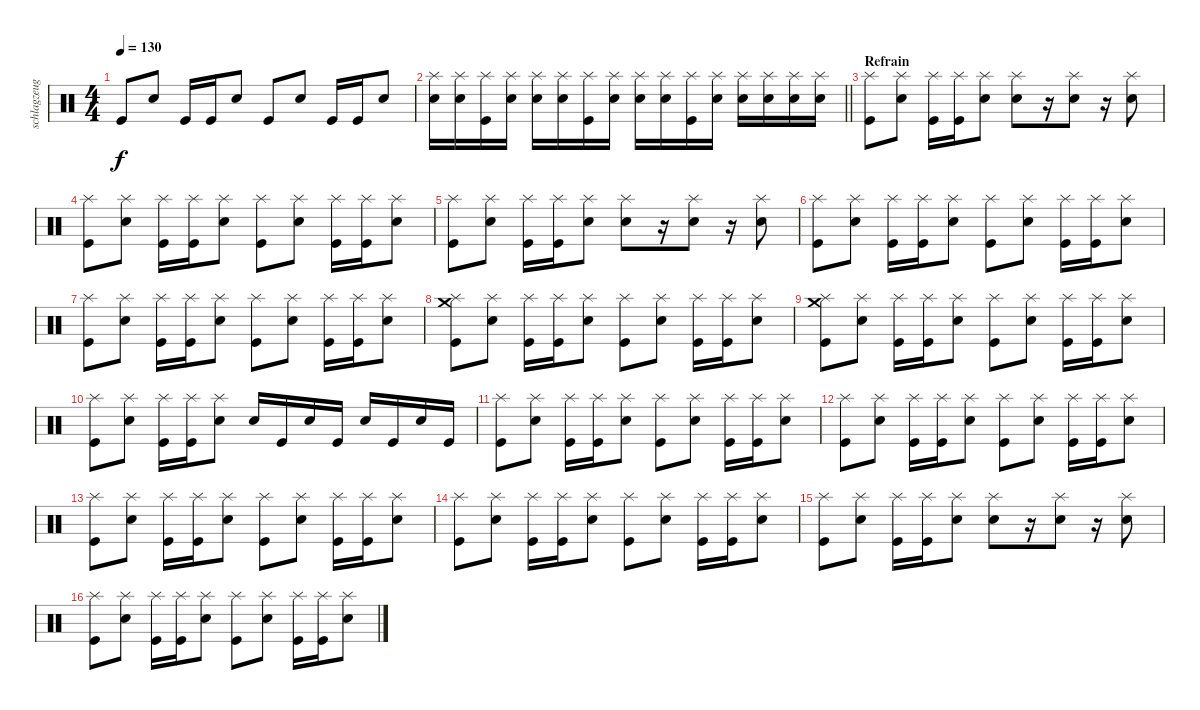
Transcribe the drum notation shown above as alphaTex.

\track ("schlagzeug" "schlagzeug") {instrument percussion}
\staff {score}
\articulation defaults
\ts (4 4)
\tempo 130
\clef neutral
\ks c "Kick (hit)".8{dy f} "Snare (hit) 2".8 "Kick (hit)".16 "Kick (hit)".16 "Snare (hit) 2".8 "Kick (hit)".8 "Snare (hit) 2".8 "Kick (hit)".16 "Kick (hit)".16 "Snare (hit) 2".8
|
\barLineRight lightlight
("Snare (hit) 2" "Splash (hit)").16 ("Snare (hit) 2" "Splash (hit)").16 ("Kick (hit)" "Splash (hit)").16 ("Snare (hit) 2" "Splash (hit)").16 ("Snare (hit) 2" "Splash (hit)").16 ("Snare (hit) 2" "Splash (hit)").16 ("Kick (hit)" "Splash (hit)").16 ("Snare (hit) 2" "Splash (hit)").16 ("Snare (hit) 2" "Splash (hit)").16 ("Snare (hit) 2" "Splash (hit)").16 ("Kick (hit)" "Splash (hit)").16 ("Snare (hit) 2" "Splash (hit)").16 ("Snare (hit) 2" "Splash (hit)").16 ("Snare (hit) 2" "Splash (hit)").16 ("Snare (hit) 2" "Splash (hit)").16 ("Snare (hit) 2" "Splash (hit)").16 |
\section ("" "Refrain")
("Kick (hit)" "Splash (hit)").8 ("Snare (hit) 2" "Splash (hit)").8 ("Kick (hit)" "Splash (hit)").16 ("Kick (hit)" "Splash (hit)").16 ("Snare (hit) 2" "Splash (hit)").8 ("Snare (hit) 2" "Splash (hit)").8 r.16 ("Snare (hit) 2" "Splash (hit)").8 r.16 ("Snare (hit) 2" "Splash (hit)").8 |
("Kick (hit)" "Splash (hit)").8 ("Snare (hit) 2" "Splash (hit)").8 ("Kick (hit)" "Splash (hit)").16 ("Kick (hit)" "Splash (hit)").16 ("Snare (hit) 2" "Splash (hit)").8 ("Kick (hit)" "Splash (hit)").8 ("Snare (hit) 2" "Splash (hit)").8 ("Kick (hit)" "Splash (hit)").16 ("Kick (hit)" "Splash (hit)").16 ("Snare (hit) 2" "Splash (hit)").8 |
("Kick (hit)" "Splash (hit)").8 ("Snare (hit) 2" "Splash (hit)").8 ("Kick (hit)" "Splash (hit)").16 ("Kick (hit)" "Splash (hit)").16 ("Snare (hit) 2" "Splash (hit)").8 ("Snare (hit) 2" "Splash (hit)").8 r.16 ("Snare (hit) 2" "Splash (hit)").8 r.16 ("Snare (hit) 2" "Splash (hit)").8 |
("Kick (hit)" "Splash (hit)").8 ("Snare (hit) 2" "Splash (hit)").8 ("Kick (hit)" "Splash (hit)").16 ("Kick (hit)" "Splash (hit)").16 ("Snare (hit) 2" "Splash (hit)").8 ("Kick (hit)" "Splash (hit)").8 ("Snare (hit) 2" "Splash (hit)").8 ("Kick (hit)" "Splash (hit)").16 ("Kick (hit)" "Splash (hit)").16 ("Snare (hit) 2" "Splash (hit)").8 |
("Kick (hit)" "Splash (hit)").8 ("Snare (hit) 2" "Splash (hit)").8 ("Kick (hit)" "Splash (hit)").16 ("Kick (hit)" "Splash (hit)").16 ("Snare (hit) 2" "Splash (hit)").8 ("Kick (hit)" "Splash (hit)").8 ("Snare (hit) 2" "Splash (hit)").8 ("Kick (hit)" "Splash (hit)").16 ("Kick (hit)" "Splash (hit)").16 ("Snare (hit) 2" "Splash (hit)").8 |
("Kick (hit)" "Splash (hit)" "Crash medium (hit)").8 ("Snare (hit) 2" "Splash (hit)").8 ("Kick (hit)" "Splash (hit)").16 ("Kick (hit)" "Splash (hit)").16 ("Snare (hit) 2" "Splash (hit)").8 ("Kick (hit)" "Splash (hit)").8 ("Snare (hit) 2" "Splash (hit)").8 ("Kick (hit)" "Splash (hit)").16 ("Kick (hit)" "Splash (hit)").16 ("Snare (hit) 2" "Splash (hit)").8 |
("Kick (hit)" "Splash (hit)" "Crash medium (hit)").8 ("Snare (hit) 2" "Splash (hit)").8 ("Kick (hit)" "Splash (hit)").16 ("Kick (hit)" "Splash (hit)").16 ("Snare (hit) 2" "Splash (hit)").8 ("Kick (hit)" "Splash (hit)").8 ("Snare (hit) 2" "Splash (hit)").8 ("Kick (hit)" "Splash (hit)").16 ("Kick (hit)" "Splash (hit)").16 ("Snare (hit) 2" "Splash (hit)").8 |
("Kick (hit)" "Splash (hit)").8 ("Snare (hit) 2" "Splash (hit)").8 ("Kick (hit)" "Splash (hit)").16 ("Kick (hit)" "Splash (hit)").16 ("Snare (hit) 2" "Splash (hit)").8 "Snare (hit) 2".16 "Kick (hit)".16 "Snare (hit) 2".16 "Kick (hit)".16 "Snare (hit) 2".16 "Kick (hit)".16 "Snare (hit) 2".16 "Kick (hit)".16 |
("Kick (hit)" "Splash (hit)").8 ("Snare (hit) 2" "Splash (hit)").8 ("Kick (hit)" "Splash (hit)").16 ("Kick (hit)" "Splash (hit)").16 ("Snare (hit) 2" "Splash (hit)").8 ("Kick (hit)" "Splash (hit)").8 ("Snare (hit) 2" "Splash (hit)").8 ("Kick (hit)" "Splash (hit)").16 ("Kick (hit)" "Splash (hit)").16 ("Snare (hit) 2" "Splash (hit)").8 |
("Kick (hit)" "Splash (hit)").8 ("Snare (hit) 2" "Splash (hit)").8 ("Kick (hit)" "Splash (hit)").16 ("Kick (hit)" "Splash (hit)").16 ("Snare (hit) 2" "Splash (hit)").8 ("Kick (hit)" "Splash (hit)").8 ("Snare (hit) 2" "Splash (hit)").8 ("Kick (hit)" "Splash (hit)").16 ("Kick (hit)" "Splash (hit)").16 ("Snare (hit) 2" "Splash (hit)").8 |
("Kick (hit)" "Splash (hit)").8 ("Snare (hit) 2" "Splash (hit)").8 ("Kick (hit)" "Splash (hit)").16 ("Kick (hit)" "Splash (hit)").16 ("Snare (hit) 2" "Splash (hit)").8 ("Kick (hit)" "Splash (hit)").8 ("Snare (hit) 2" "Splash (hit)").8 ("Kick (hit)" "Splash (hit)").16 ("Kick (hit)" "Splash (hit)").16 ("Snare (hit) 2" "Splash (hit)").8 |
("Kick (hit)" "Splash (hit)").8 ("Snare (hit) 2" "Splash (hit)").8 ("Kick (hit)" "Splash (hit)").16 ("Kick (hit)" "Splash (hit)").16 ("Snare (hit) 2" "Splash (hit)").8 ("Kick (hit)" "Splash (hit)").8 ("Snare (hit) 2" "Splash (hit)").8 ("Kick (hit)" "Splash (hit)").16 ("Kick (hit)" "Splash (hit)").16 ("Snare (hit) 2" "Splash (hit)").8 |
("Kick (hit)" "Splash (hit)").8 ("Snare (hit) 2" "Splash (hit)").8 ("Kick (hit)" "Splash (hit)").16 ("Kick (hit)" "Splash (hit)").16 ("Snare (hit) 2" "Splash (hit)").8 ("Snare (hit) 2" "Splash (hit)").8 r.16 ("Snare (hit) 2" "Splash (hit)").8 r.16 ("Snare (hit) 2" "Splash (hit)").8 |
("Kick (hit)" "Splash (hit)").8 ("Snare (hit) 2" "Splash (hit)").8 ("Kick (hit)" "Splash (hit)").16 ("Kick (hit)" "Splash (hit)").16 ("Snare (hit) 2" "Splash (hit)").8 ("Kick (hit)" "Splash (hit)").8 ("Snare (hit) 2" "Splash (hit)").8 ("Kick (hit)" "Splash (hit)").16 ("Kick (hit)" "Splash (hit)").16 ("Snare (hit) 2" "Splash (hit)").8
